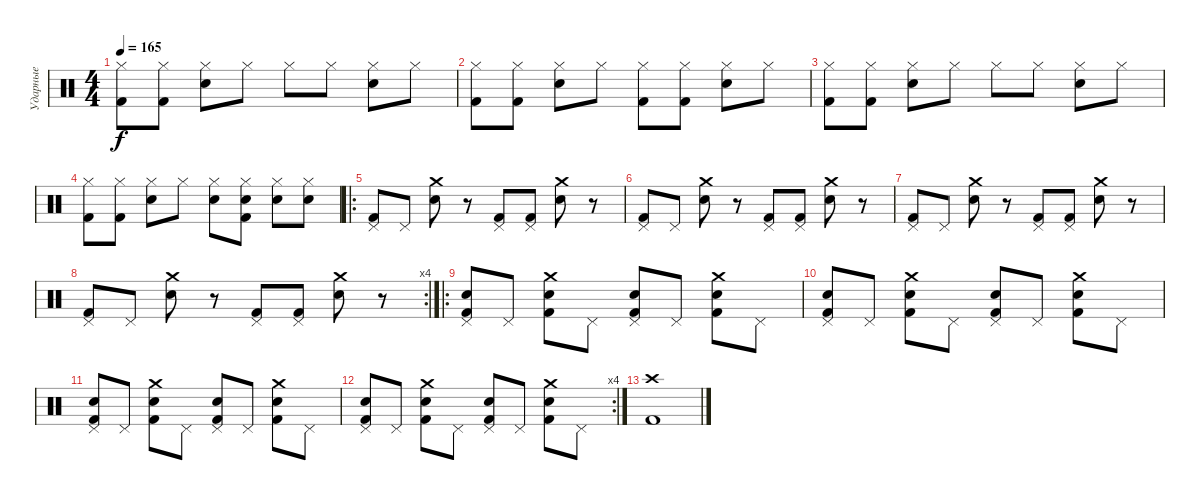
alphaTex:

\track ("Ударные" "Ударные") {instrument percussion}
\staff {score}
\articulation defaults
\ts (4 4)
\tempo 165
\clef neutral
\ks c
("Kick (hit) 2" "Hi-Hat (closed)").8{dy f} ("Kick (hit) 2" "Hi-Hat (closed)").8 ("Electric Snare (hit)" "Hi-Hat (closed)").8 "Hi-Hat (closed)".8 "Hi-Hat (closed)".8 "Hi-Hat (closed)".8 ("Electric Snare (hit)" "Hi-Hat (closed)").8 "Hi-Hat (closed)".8 |
("Kick (hit) 2" "Hi-Hat (closed)").8 ("Kick (hit) 2" "Hi-Hat (closed)").8 ("Electric Snare (hit)" "Hi-Hat (closed)").8 "Hi-Hat (closed)".8 ("Kick (hit) 2" "Hi-Hat (closed)").8 ("Kick (hit) 2" "Hi-Hat (closed)").8 ("Electric Snare (hit)" "Hi-Hat (closed)").8 "Hi-Hat (closed)".8 |
("Kick (hit) 2" "Hi-Hat (closed)").8 ("Kick (hit) 2" "Hi-Hat (closed)").8 ("Electric Snare (hit)" "Hi-Hat (closed)").8 "Hi-Hat (closed)".8 "Hi-Hat (closed)".8 "Hi-Hat (closed)".8 ("Electric Snare (hit)" "Hi-Hat (closed)").8 "Hi-Hat (closed)".8 |
("Kick (hit) 2" "Hi-Hat (closed)").8 ("Kick (hit) 2" "Hi-Hat (closed)").8 ("Electric Snare (hit)" "Hi-Hat (closed)").8 "Hi-Hat (closed)".8 ("Electric Snare (hit)" "Hi-Hat (closed)").8 ("Kick (hit) 2" "Electric Snare (hit)" "Hi-Hat (closed)").8 ("Electric Snare (hit)" "Hi-Hat (closed)").8 ("Electric Snare (hit)" "Hi-Hat (closed)").8 |
\ro
("Kick (hit) 2" "Pedal Hi-Hat (hit)").8 "Pedal Hi-Hat (hit)".8 ("Electric Snare (hit)" "Crash medium (hit)").8 r.8 ("Kick (hit) 2" "Pedal Hi-Hat (hit)").8 ("Kick (hit) 2" "Pedal Hi-Hat (hit)").8 ("Electric Snare (hit)" "Crash medium (hit)").8 r.8 |
("Kick (hit) 2" "Pedal Hi-Hat (hit)").8 "Pedal Hi-Hat (hit)".8 ("Electric Snare (hit)" "Crash medium (hit)").8 r.8 ("Kick (hit) 2" "Pedal Hi-Hat (hit)").8 ("Kick (hit) 2" "Pedal Hi-Hat (hit)").8 ("Electric Snare (hit)" "Crash medium (hit)").8 r.8 |
("Kick (hit) 2" "Pedal Hi-Hat (hit)").8 "Pedal Hi-Hat (hit)".8 ("Electric Snare (hit)" "Crash medium (hit)").8 r.8 ("Kick (hit) 2" "Pedal Hi-Hat (hit)").8 ("Kick (hit) 2" "Pedal Hi-Hat (hit)").8 ("Electric Snare (hit)" "Crash medium (hit)").8 r.8 |
\rc 4
("Kick (hit) 2" "Pedal Hi-Hat (hit)").8 "Pedal Hi-Hat (hit)".8 ("Electric Snare (hit)" "Crash medium (hit)").8 r.8 ("Kick (hit) 2" "Pedal Hi-Hat (hit)").8 ("Kick (hit) 2" "Pedal Hi-Hat (hit)").8 ("Electric Snare (hit)" "Crash medium (hit)").8 r.8 |
\ro
("Kick (hit) 2" "Electric Snare (hit)" "Pedal Hi-Hat (hit)").8 "Pedal Hi-Hat (hit)".8 ("Kick (hit) 2" "Electric Snare (hit)" "Crash medium (hit)").8 "Pedal Hi-Hat (hit)".8 ("Kick (hit) 2" "Electric Snare (hit)" "Pedal Hi-Hat (hit)").8 "Pedal Hi-Hat (hit)".8 ("Kick (hit) 2" "Electric Snare (hit)" "Crash medium (hit)").8 "Pedal Hi-Hat (hit)".8 |
("Kick (hit) 2" "Electric Snare (hit)" "Pedal Hi-Hat (hit)").8 "Pedal Hi-Hat (hit)".8 ("Kick (hit) 2" "Electric Snare (hit)" "Crash medium (hit)").8 "Pedal Hi-Hat (hit)".8 ("Kick (hit) 2" "Electric Snare (hit)" "Pedal Hi-Hat (hit)").8 "Pedal Hi-Hat (hit)".8 ("Kick (hit) 2" "Electric Snare (hit)" "Crash medium (hit)").8 "Pedal Hi-Hat (hit)".8 |
("Kick (hit) 2" "Electric Snare (hit)" "Pedal Hi-Hat (hit)").8 "Pedal Hi-Hat (hit)".8 ("Kick (hit) 2" "Electric Snare (hit)" "Crash medium (hit)").8 "Pedal Hi-Hat (hit)".8 ("Kick (hit) 2" "Electric Snare (hit)" "Pedal Hi-Hat (hit)").8 "Pedal Hi-Hat (hit)".8 ("Kick (hit) 2" "Electric Snare (hit)" "Crash medium (hit)").8 "Pedal Hi-Hat (hit)".8 |
\rc 4
("Kick (hit) 2" "Electric Snare (hit)" "Pedal Hi-Hat (hit)").8 "Pedal Hi-Hat (hit)".8 ("Kick (hit) 2" "Electric Snare (hit)" "Crash medium (hit)").8 "Pedal Hi-Hat (hit)".8 ("Kick (hit) 2" "Electric Snare (hit)" "Pedal Hi-Hat (hit)").8 "Pedal Hi-Hat (hit)".8 ("Kick (hit) 2" "Electric Snare (hit)" "Crash medium (hit)").8 "Pedal Hi-Hat (hit)".8 |
("Kick (hit) 2" "Crash high (hit)").1
